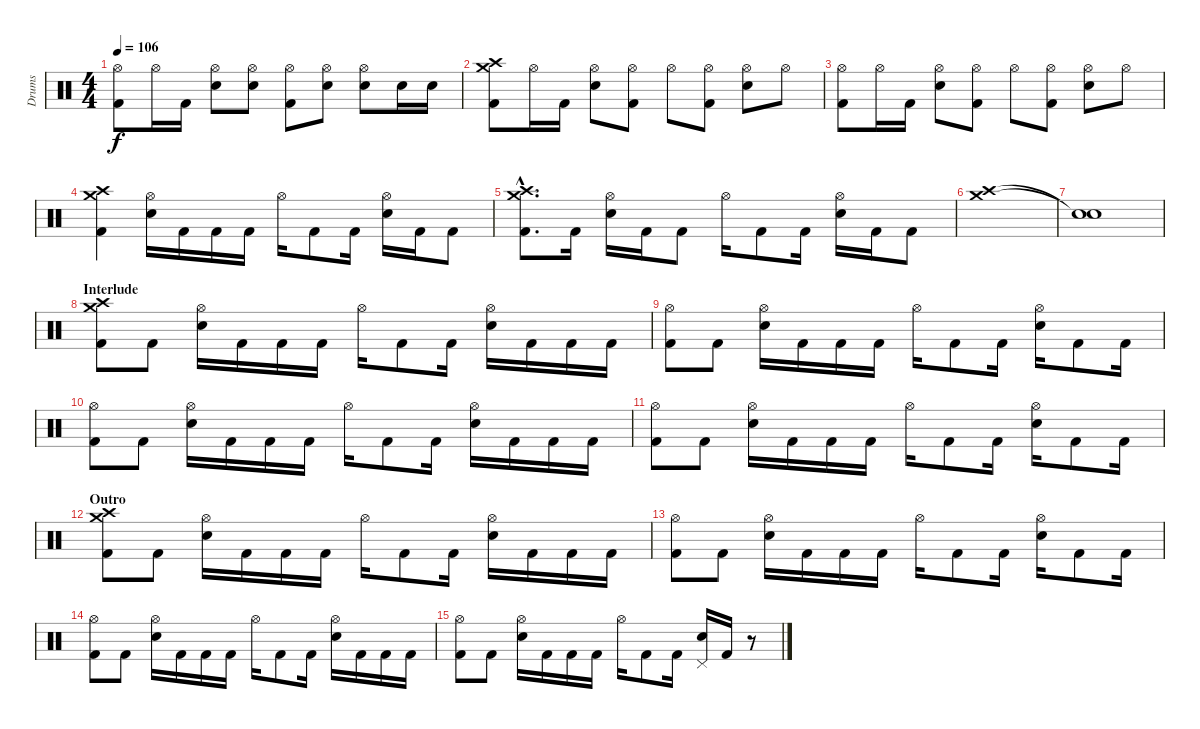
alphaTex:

\track ("Drums" "Drums") {instrument percussion}
\staff {score}
\articulation defaults
\ts (4 4)
\tempo 106
\clef neutral
\ks c
("Hi-Hat (open)" "Kick (hit) 2").8{dy f} "Hi-Hat (open)".16 "Kick (hit) 2".16 ("Hi-Hat (open)" "Electric Snare (hit)").8 ("Hi-Hat (open)" "Electric Snare (hit)").8 ("Hi-Hat (open)" "Kick (hit) 2").8 ("Hi-Hat (open)" "Electric Snare (hit)").8 ("Hi-Hat (open)" "Electric Snare (hit)").8 "Electric Snare (hit)".16 "Electric Snare (hit)".16 |
("Crash high (hit)" "Crash medium (hit)" "Kick (hit) 2").8 "Hi-Hat (open)".16 "Kick (hit) 2".16 ("Hi-Hat (open)" "Electric Snare (hit)").8 ("Hi-Hat (open)" "Kick (hit) 2").8 "Hi-Hat (open)".8 ("Hi-Hat (open)" "Kick (hit) 2").8 ("Hi-Hat (open)" "Electric Snare (hit)").8 "Hi-Hat (open)".8 |
("Hi-Hat (open)" "Kick (hit) 2").8 "Hi-Hat (open)".16 "Kick (hit) 2".16 ("Hi-Hat (open)" "Electric Snare (hit)").8 ("Hi-Hat (open)" "Kick (hit) 2").8 "Hi-Hat (open)".8 ("Hi-Hat (open)" "Kick (hit) 2").8 ("Hi-Hat (open)" "Electric Snare (hit)").8 "Hi-Hat (open)".8 |
("Crash high (hit)" "Crash medium (hit)" "Kick (hit) 2").4 ("Hi-Hat (open)" "Electric Snare (hit)").16 "Kick (hit) 2".16 "Kick (hit) 2".16 "Kick (hit) 2".16 "Hi-Hat (open)".16 "Kick (hit) 2".8 "Kick (hit) 2".16 ("Hi-Hat (open)" "Electric Snare (hit)").16 "Kick (hit) 2".16 "Kick (hit) 2".8 |
("Crash high (hit)"{hac} "Crash medium (hit)"{hac} "Kick (hit) 2"{hac}).8{d} "Kick (hit) 2".16 ("Hi-Hat (open)" "Electric Snare (hit)").16 "Kick (hit) 2".16 "Kick (hit) 2".8 "Hi-Hat (open)".16 "Kick (hit) 2".8 "Kick (hit) 2".16 ("Hi-Hat (open)" "Electric Snare (hit)").16 "Kick (hit) 2".16 "Kick (hit) 2".8 |
("Crash high (hit)" "Crash medium (hit)").1 |
("Snare (hit)"{t} "Snare (hit)"{t}).1 |
\section ("" "Interlude")
("Crash high (hit)" "Crash medium (hit)" "Kick (hit) 2").8 "Kick (hit) 2".8 ("Hi-Hat (open)" "Electric Snare (hit)").16 "Kick (hit) 2".16 "Kick (hit) 2".16 "Kick (hit) 2".16 "Hi-Hat (open)".16 "Kick (hit) 2".8 "Kick (hit) 2".16 ("Hi-Hat (open)" "Electric Snare (hit)").16 "Kick (hit) 2".16 "Kick (hit) 2".16 "Kick (hit) 2".16 |
("Hi-Hat (open)" "Kick (hit) 2").8 "Kick (hit) 2".8 ("Hi-Hat (open)" "Electric Snare (hit)").16 "Kick (hit) 2".16 "Kick (hit) 2".16 "Kick (hit) 2".16 "Hi-Hat (open)".16 "Kick (hit) 2".8 "Kick (hit) 2".16 ("Hi-Hat (open)" "Electric Snare (hit)").16 "Kick (hit) 2".8 "Kick (hit) 2".16 |
("Hi-Hat (open)" "Kick (hit) 2").8 "Kick (hit) 2".8 ("Hi-Hat (open)" "Electric Snare (hit)").16 "Kick (hit) 2".16 "Kick (hit) 2".16 "Kick (hit) 2".16 "Hi-Hat (open)".16 "Kick (hit) 2".8 "Kick (hit) 2".16 ("Hi-Hat (open)" "Electric Snare (hit)").16 "Kick (hit) 2".16 "Kick (hit) 2".16 "Kick (hit) 2".16 |
("Hi-Hat (open)" "Kick (hit) 2").8 "Kick (hit) 2".8 ("Hi-Hat (open)" "Electric Snare (hit)").16 "Kick (hit) 2".16 "Kick (hit) 2".16 "Kick (hit) 2".16 "Hi-Hat (open)".16 "Kick (hit) 2".8 "Kick (hit) 2".16 ("Hi-Hat (open)" "Electric Snare (hit)").16 "Kick (hit) 2".8 "Kick (hit) 2".16 |
\section ("" "Outro")
("Crash high (hit)" "Crash medium (hit)" "Kick (hit) 2").8 "Kick (hit) 2".8 ("Hi-Hat (open)" "Electric Snare (hit)").16 "Kick (hit) 2".16 "Kick (hit) 2".16 "Kick (hit) 2".16 "Hi-Hat (open)".16 "Kick (hit) 2".8 "Kick (hit) 2".16 ("Hi-Hat (open)" "Electric Snare (hit)").16 "Kick (hit) 2".16 "Kick (hit) 2".16 "Kick (hit) 2".16 |
("Hi-Hat (open)" "Kick (hit) 2").8 "Kick (hit) 2".8 ("Hi-Hat (open)" "Electric Snare (hit)").16 "Kick (hit) 2".16 "Kick (hit) 2".16 "Kick (hit) 2".16 "Hi-Hat (open)".16 "Kick (hit) 2".8 "Kick (hit) 2".16 ("Hi-Hat (open)" "Electric Snare (hit)").16 "Kick (hit) 2".8 "Kick (hit) 2".16 |
("Hi-Hat (open)" "Kick (hit) 2").8 "Kick (hit) 2".8 ("Hi-Hat (open)" "Electric Snare (hit)").16 "Kick (hit) 2".16 "Kick (hit) 2".16 "Kick (hit) 2".16 "Hi-Hat (open)".16 "Kick (hit) 2".8 "Kick (hit) 2".16 ("Hi-Hat (open)" "Electric Snare (hit)").16 "Kick (hit) 2".16 "Kick (hit) 2".16 "Kick (hit) 2".16 |
("Hi-Hat (open)" "Kick (hit) 2").8 "Kick (hit) 2".8 ("Hi-Hat (open)" "Electric Snare (hit)").16 "Kick (hit) 2".16 "Kick (hit) 2".16 "Kick (hit) 2".16 "Hi-Hat (open)".16 "Kick (hit) 2".8 "Kick (hit) 2".16 ("Pedal Hi-Hat (hit)" "Electric Snare (hit)").16 "Kick (hit) 2".16 r.8
